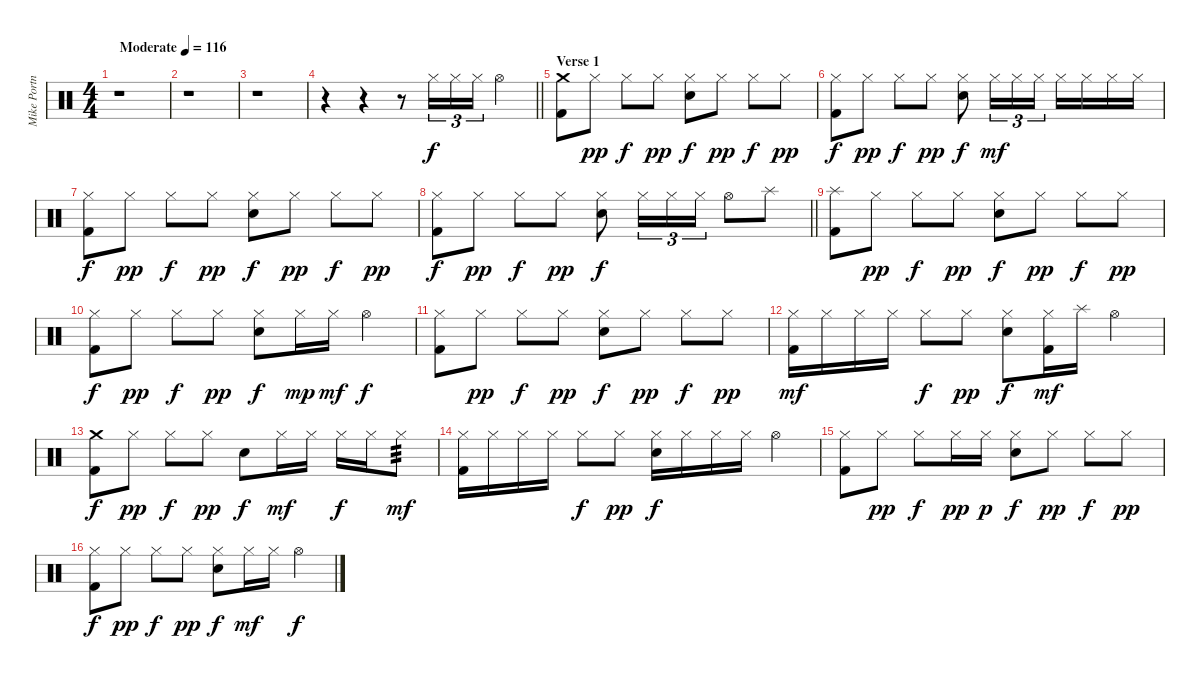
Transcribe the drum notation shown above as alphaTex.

\track ("Mike Portnoy [Drums]" "Mike Portn") {instrument percussion}
\staff {score}
\articulation defaults
\ts (4 4)
\tempo (116 "Moderate")
\clef neutral
\ks c
r.1{dy f} |
r.1 |
r.1 |
\barLineRight lightlight
r.4 r.4 r.8 "Hi-Hat (closed)".16{tu (3 2)} "Hi-Hat (closed)".16{tu (3 2)} "Hi-Hat (closed)".16{tu (3 2)} "Hi-Hat (open)".4 |
\section ("" "Verse 1")
("Crash medium (hit)" "Kick (hit) 2").8 "Hi-Hat (closed)".8{dy pp} "Hi-Hat (closed)".8{dy f} "Hi-Hat (closed)".8{dy pp} ("Hi-Hat (closed)" "Electric Snare (hit)").8{dy f} "Hi-Hat (closed)".8{dy pp} "Hi-Hat (closed)".8{dy f} "Hi-Hat (closed)".8{dy pp} |
("Hi-Hat (closed)" "Kick (hit) 2").8{dy f} "Hi-Hat (closed)".8{dy pp} "Hi-Hat (closed)".8{dy f} "Hi-Hat (closed)".8{dy pp} ("Hi-Hat (closed)" "Electric Snare (hit)").8{dy f} "Hi-Hat (closed)".16{tu (3 2) dy mf} "Hi-Hat (closed)".16{tu (3 2)} "Hi-Hat (closed)".16{tu (3 2)} "Hi-Hat (closed)".16 "Hi-Hat (closed)".16 "Hi-Hat (closed)".16 "Hi-Hat (closed)".16 |
("Hi-Hat (closed)" "Kick (hit) 2").8{dy f} "Hi-Hat (closed)".8{dy pp} "Hi-Hat (closed)".8{dy f} "Hi-Hat (closed)".8{dy pp} ("Hi-Hat (closed)" "Electric Snare (hit)").8{dy f} "Hi-Hat (closed)".8{dy pp} "Hi-Hat (closed)".8{dy f} "Hi-Hat (closed)".8{dy pp} |
\barLineRight lightlight
("Hi-Hat (closed)" "Kick (hit) 2").8{dy f} "Hi-Hat (closed)".8{dy pp} "Hi-Hat (closed)".8{dy f} "Hi-Hat (closed)".8{dy pp} ("Hi-Hat (closed)" "Electric Snare (hit)").8{dy f} "Hi-Hat (closed)".16{tu (3 2)} "Hi-Hat (closed)".16{tu (3 2)} "Hi-Hat (closed)".16{tu (3 2)} "Hi-Hat (open)".8 "Splash (hit)".8 |
("Splash (hit)" "Kick (hit) 2").8 "Hi-Hat (closed)".8{dy pp} "Hi-Hat (closed)".8{dy f} "Hi-Hat (closed)".8{dy pp} ("Hi-Hat (closed)" "Electric Snare (hit)").8{dy f} "Hi-Hat (closed)".8{dy pp} "Hi-Hat (closed)".8{dy f} "Hi-Hat (closed)".8{dy pp} |
("Hi-Hat (closed)" "Kick (hit) 2").8{dy f} "Hi-Hat (closed)".8{dy pp} "Hi-Hat (closed)".8{dy f} "Hi-Hat (closed)".8{dy pp} ("Hi-Hat (closed)" "Electric Snare (hit)").8{dy f} "Hi-Hat (closed)".16{dy mp} "Hi-Hat (closed)".16{dy mf} "Hi-Hat (open)".4{dy f} |
("Hi-Hat (closed)" "Kick (hit) 2").8 "Hi-Hat (closed)".8{dy pp} "Hi-Hat (closed)".8{dy f} "Hi-Hat (closed)".8{dy pp} ("Hi-Hat (closed)" "Electric Snare (hit)").8{dy f} "Hi-Hat (closed)".8{dy pp} "Hi-Hat (closed)".8{dy f} "Hi-Hat (closed)".8{dy pp} |
("Hi-Hat (closed)" "Kick (hit) 2").16{dy mf} "Hi-Hat (closed)".16 "Hi-Hat (closed)".16 "Hi-Hat (closed)".16 "Hi-Hat (closed)".8{dy f} "Hi-Hat (closed)".8{dy pp} ("Hi-Hat (closed)" "Electric Snare (hit)").8{dy f} ("Hi-Hat (closed)" "Kick (hit) 2").16{dy mf} "Splash (hit)".16 "Hi-Hat (open)".4 |
("Crash medium (hit)" "Kick (hit) 2").8{dy f} "Hi-Hat (closed)".8{dy pp} "Hi-Hat (closed)".8{dy f} "Hi-Hat (closed)".8{dy pp} "Electric Snare (hit)".8{dy f} "Hi-Hat (closed)".16{dy mf} "Hi-Hat (closed)".16 "Hi-Hat (closed)".16{dy f} "Hi-Hat (closed)".16 "Hi-Hat (closed)".8{tp 3 dy mf} |
("Hi-Hat (closed)" "Kick (hit) 2").16 "Hi-Hat (closed)".16 "Hi-Hat (closed)".16 "Hi-Hat (closed)".16 "Hi-Hat (closed)".8{dy f} "Hi-Hat (closed)".8{dy pp} ("Hi-Hat (closed)" "Electric Snare (hit)").16{dy f} "Hi-Hat (closed)".16 "Hi-Hat (closed)".16 "Hi-Hat (closed)".16 "Hi-Hat (open)".4 |
("Hi-Hat (closed)" "Kick (hit) 2").8 "Hi-Hat (closed)".8{dy pp} "Hi-Hat (closed)".8{dy f} "Hi-Hat (closed)".16{dy pp} "Hi-Hat (closed)".16{dy p} ("Hi-Hat (closed)" "Electric Snare (hit)").8{dy f} "Hi-Hat (closed)".8{dy pp} "Hi-Hat (closed)".8{dy f} "Hi-Hat (closed)".8{dy pp} |
("Hi-Hat (closed)" "Kick (hit) 2").8{dy f} "Hi-Hat (closed)".8{dy pp} "Hi-Hat (closed)".8{dy f} "Hi-Hat (closed)".8{dy pp} ("Hi-Hat (closed)" "Electric Snare (hit)").8{dy f} "Hi-Hat (closed)".16{dy mf} "Hi-Hat (closed)".16 "Hi-Hat (open)".4{dy f}
